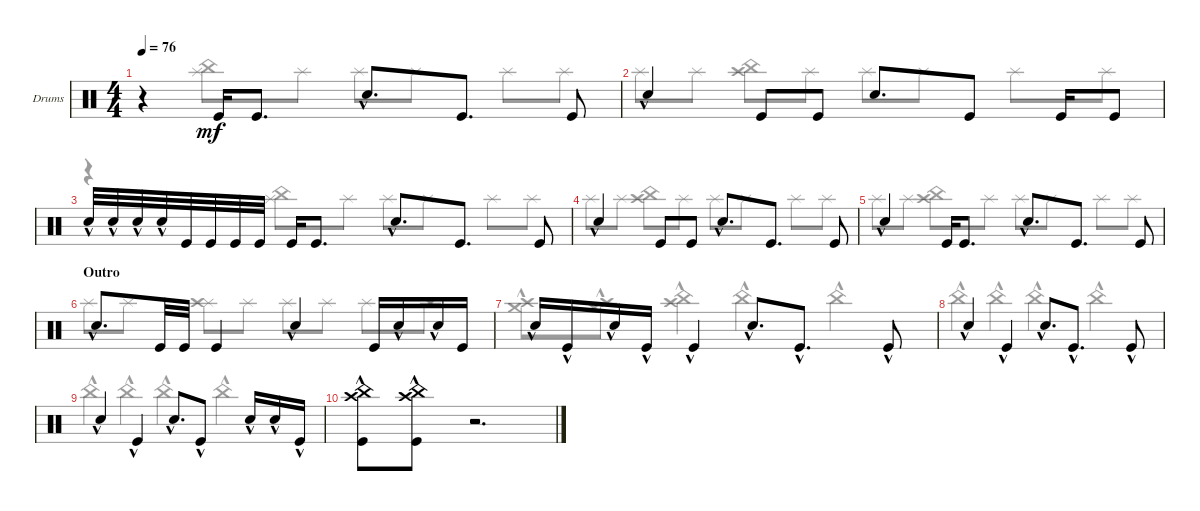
\defaultSystemsLayout 4
\bracketExtendMode groupsimilarinstruments
\firstSystemTrackNameOrientation horizontal
\otherSystemsTrackNameOrientation horizontal
\track ("Drumkit" "Drums") {instrument percussion}
\staff {score}
\articulation defaults
\voice
\ts (4 4)
\tempo 76
\clef neutral
\ks c
r.4{dy mf} "Kick (hit)".16 "Kick (hit)".8{d} "Snare (hit) 2"{hac}.8{d} "Kick (hit)".8{d} "Kick (hit)".8 |
"Snare (hit) 2"{hac}.4 "Kick (hit)".8 "Kick (hit)".8 "Snare (hit) 2".8{d} "Kick (hit)".8 "Kick (hit)".16 "Kick (hit)".8 |
"Snare (hit) 2"{hac}.32 "Snare (hit) 2"{hac}.32 "Snare (hit) 2"{hac}.32 "Snare (hit) 2"{hac}.32 "Kick (hit)".32 "Kick (hit)".32 "Kick (hit)".32 "Kick (hit)".32 "Kick (hit)".16 "Kick (hit)".8{d} "Snare (hit) 2"{hac}.8{d} "Kick (hit)".8{d} "Kick (hit)".8 |
"Snare (hit) 2"{hac}.4 "Kick (hit)".8 "Kick (hit)".8 "Snare (hit) 2"{hac}.8{d} "Kick (hit)".8{d} "Kick (hit)".8 |
"Snare (hit) 2"{hac}.4 "Kick (hit)".16 "Kick (hit)".8{d} "Snare (hit) 2"{hac}.8{d} "Kick (hit)".8{d} "Kick (hit)".8 |
\section ("" "Outro")
"Snare (hit) 2"{hac}.8{d} "Kick (hit)".32 "Kick (hit)".32 "Kick (hit)".4 "Snare (hit) 2"{hac}.4 "Kick (hit)".16 "Snare (hit) 2"{hac}.16 "Snare (hit) 2"{hac}.16 "Kick (hit)".16 |
"Snare (hit) 2"{hac}.16 "Kick (hit)"{hac}.16 "Snare (hit) 2"{hac}.16 "Kick (hit)"{hac}.16 "Kick (hit)"{hac}.4 "Snare (hit) 2"{hac}.8{d} "Kick (hit)"{hac}.8{d} "Kick (hit)"{hac}.8 |
"Snare (hit) 2"{hac}.4 "Kick (hit)"{hac}.4 "Snare (hit) 2"{hac}.8{d} "Kick (hit)"{hac}.8{d} "Kick (hit)"{hac}.8 |
"Snare (hit) 2"{hac}.4 "Kick (hit)"{hac}.4 "Snare (hit) 2"{hac}.8{d} "Kick (hit)"{hac}.8 "Snare (hit) 2"{hac}.16 "Snare (hit) 2"{hac}.16 "Kick (hit)"{hac}.16 |
("Kick (hit)"{hac} "China (hit)"{hac} "Crash high (hit)"{hac}).8 ("Kick (hit)"{hac} "China (hit)"{hac} "Crash high (hit)"{hac}).8 r.2{d}
\voice
\clef neutral
\ottava regular
\simile none
\ks c
r.4{dy mf} ("Splash (hit)" "China (hit)").8 "Splash (hit)".8 "Splash (hit)".8 "Splash (hit)".8 "Splash (hit)".8 "Splash (hit)".8 |
"Splash (hit)".8 "Splash (hit)".8 ("China (hit)" "Crash high (hit)").8 "Splash (hit)".8 "Splash (hit)".8 "Splash (hit)".8 "Splash (hit)".8 "Splash (hit)".8 |
r.4 ("Splash (hit)" "China (hit)").8 "Splash (hit)".8 "Splash (hit)".8 "Splash (hit)".8 "Splash (hit)".8 "Splash (hit)".8 |
"Splash (hit)".8 "Splash (hit)".8 ("China (hit)" "Crash high (hit)").8 "Splash (hit)".8 "Splash (hit)".8 "Splash (hit)".8 "Splash (hit)".8 "Splash (hit)".8 |
"Splash (hit)".8 "Splash (hit)".8 ("China (hit)" "Crash high (hit)").8 "Splash (hit)".8 "Splash (hit)".8 "Splash (hit)".8 "Splash (hit)".8 "Splash (hit)".8 |
"Splash (hit)".8 "Splash (hit)".8 ("Splash (hit)" "Crash high (hit)").8 "Splash (hit)".8 "Splash (hit)".8 "Splash (hit)".8 "Splash (hit)".8 "Crash high (hit)".8 |
("Crash high (hit)"{hac} "Crash medium (hit)"{hac}).8 ("Crash high (hit)"{hac} "Crash medium (hit)"{hac}).8 ("Crash high (hit)"{hac} "China (hit)"{hac}).4 "China (hit)"{hac}.4 "China (hit)"{hac}.4 |
"China (hit)"{hac}.4 "China (hit)"{hac}.4 "China (hit)"{hac}.4 "China (hit)"{hac}.4 |
"China (hit)"{hac}.4 "China (hit)"{hac}.4 "China (hit)"{hac}.4 "China (hit)"{hac}.4 |
